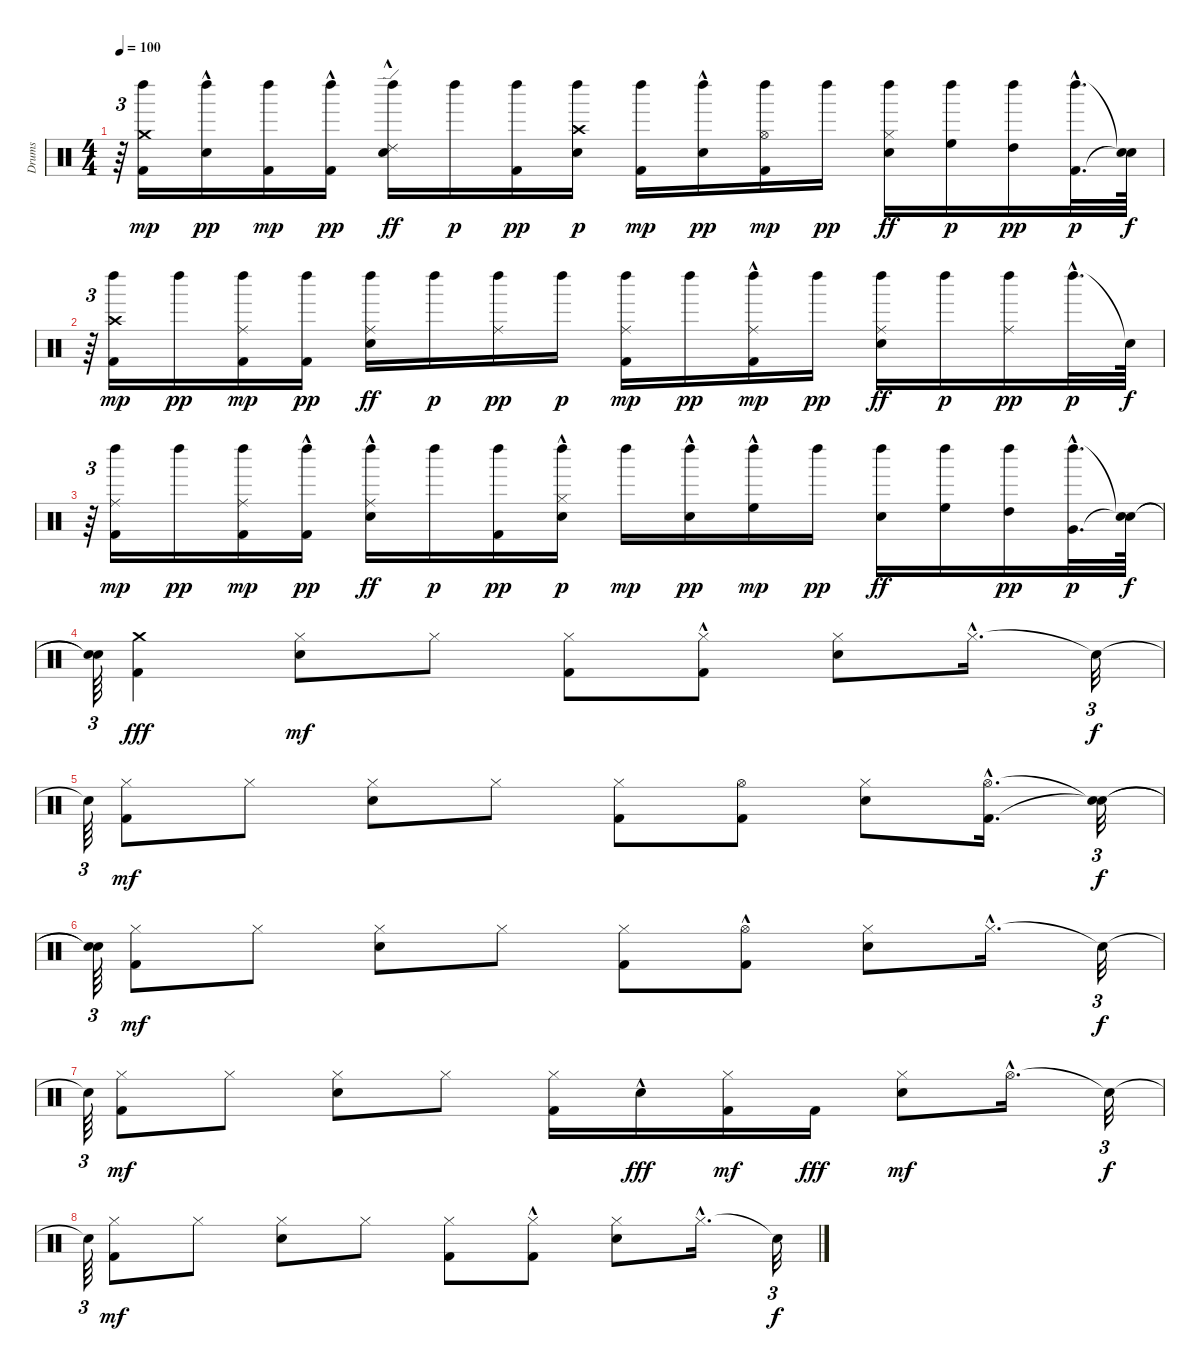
\track ("Drums" "Drums") {instrument percussion}
\staff {score}
\articulation defaults
\ts (4 4)
\tempo 100
\clef neutral
\ks c
r.64{tu (3 2) dy f} ("Crash medium (hit)" "Kick (hit) 2" "Left Maraca (hit)").16{dy mp} ("Snare (hit) 2"{hac} "Left Maraca (hit)").16{dy pp} ("Kick (hit) 2" "Left Maraca (hit)").16{dy mp} ("Kick (hit) 2"{hac} "Left Maraca (hit)").16{dy pp} ("Ride (edge) 2" "Snare (hit) 2"{hac} "Left Maraca (hit)").16{dy ff} "Left Maraca (hit)".16{dy p} ("Kick (hit) 2" "Left Maraca (hit)").16{dy pp} ("Crash high (hit)" "Snare (hit) 2" "Left Maraca (hit)").16{dy p} ("Kick (hit) 2" "Left Maraca (hit)").16{dy mp} ("Snare (hit) 2"{hac} "Left Maraca (hit)").16{dy pp} ("Kick (hit) 2" "Hi-Hat (open)" "Left Maraca (hit)").16{dy mp} "Left Maraca (hit)".16{dy pp} ("Snare (hit) 2" "Hi-Hat (closed)" "Left Maraca (hit)").16{dy ff} ("High Floor Tom (hit)" "Left Maraca (hit)").16{dy p} ("High Tom (hit)" "Left Maraca (hit)").16{dy pp} ("Kick (hit) 2"{hac} "Left Maraca (hit)"{hac}).32{d dy p} ("Snare (hit)"{t} "Snare (hit)"{t}).64{dy f} |
r.64{tu (3 2)} ("Crash high (hit)" "Kick (hit) 2" "Left Maraca (hit)").16{dy mp} "Left Maraca (hit)".16{dy pp} ("Ride (middle)" "Kick (hit) 2" "Left Maraca (hit)").16{dy mp} ("Kick (hit) 2" "Left Maraca (hit)").16{dy pp} ("Ride (middle)" "Snare (hit) 2" "Left Maraca (hit)").16{dy ff} "Left Maraca (hit)".16{dy p} ("Ride (middle)" "Left Maraca (hit)").16{dy pp} "Left Maraca (hit)".16{dy p} ("Ride (middle)" "Kick (hit) 2" "Left Maraca (hit)").16{dy mp} "Left Maraca (hit)".16{dy pp} ("Ride (middle)" "Kick (hit) 2"{hac} "Left Maraca (hit)").16{dy mp} "Left Maraca (hit)".16{dy pp} ("Ride (middle)" "Snare (hit) 2" "Left Maraca (hit)").16{dy ff} "Left Maraca (hit)".16{dy p} ("Ride (middle)" "Left Maraca (hit)").16{dy pp} "Left Maraca (hit)"{hac}.32{d dy p} "Snare (hit)"{t}.64{dy f} |
r.64{tu (3 2)} ("Ride (middle)" "Kick (hit) 2" "Left Maraca (hit)").16{dy mp} "Left Maraca (hit)".16{dy pp} ("Ride (middle)" "Kick (hit) 2" "Left Maraca (hit)").16{dy mp} ("Kick (hit) 2"{hac} "Left Maraca (hit)").16{dy pp} ("Ride (middle)" "Snare (hit) 2"{hac} "Left Maraca (hit)").16{dy ff} "Left Maraca (hit)".16{dy p} ("Kick (hit) 2" "Left Maraca (hit)").16{dy pp} ("Snare (hit) 2" "Hi-Hat (closed)"{hac} "Left Maraca (hit)").16{dy p} "Left Maraca (hit)".16{dy mp} ("Snare (hit) 2"{hac} "Left Maraca (hit)").16{dy pp} ("High Floor Tom (hit)"{hac} "Left Maraca (hit)").16{dy mp} "Left Maraca (hit)".16{dy pp} ("Snare (hit) 2" "Left Maraca (hit)").16{dy ff} ("Left Maraca (hit)" "High Floor Tom (hit)").16 ("High Tom (hit)" "Left Maraca (hit)").16{dy pp} ("Very Low Tom (hit)"{hac} "Left Maraca (hit)"{hac}).32{d dy p} ("Snare (hit)"{t} "Snare (hit)"{t}).64{dy f} |
("Snare (hit)"{t} "Snare (hit)"{t}).64{tu (3 2)} ("Crash medium (hit)" "Kick (hit) 2").4{dy fff} ("Snare (hit) 2" "Hi-Hat (closed)").8{dy mf} "Hi-Hat (closed)".8 ("Kick (hit) 2" "Hi-Hat (closed)").8 ("Kick (hit) 2"{hac} "Hi-Hat (closed)").8 ("Snare (hit) 2" "Hi-Hat (closed)").8 "Hi-Hat (closed)"{hac}.16{d} "Snare (hit)"{t}.32{tu (3 2) dy f} |
"Snare (hit)"{t}.64{tu (3 2)} ("Kick (hit) 2" "Hi-Hat (closed)").8{dy mf} "Hi-Hat (closed)".8 ("Snare (hit) 2" "Hi-Hat (closed)").8 "Hi-Hat (closed)".8 ("Kick (hit) 2" "Hi-Hat (closed)").8 ("Kick (hit) 2" "Hi-Hat (open)").8 ("Snare (hit) 2" "Hi-Hat (closed)").8 ("Kick (hit) 2"{hac} "Hi-Hat (open)"{hac}).16{d} ("Snare (hit)"{t} "Snare (hit)"{t}).32{tu (3 2) dy f} |
("Snare (hit)"{t} "Snare (hit)"{t}).64{tu (3 2)} ("Kick (hit) 2" "Hi-Hat (closed)").8{dy mf} "Hi-Hat (closed)".8 ("Snare (hit) 2" "Hi-Hat (closed)").8 "Hi-Hat (closed)".8 ("Kick (hit) 2" "Hi-Hat (closed)").8 ("Kick (hit) 2"{hac} "Hi-Hat (open)").8 ("Snare (hit) 2" "Hi-Hat (closed)").8 "Hi-Hat (closed)"{hac}.16{d} "Snare (hit)"{t}.32{tu (3 2) dy f} |
"Snare (hit)"{t}.64{tu (3 2)} ("Kick (hit) 2" "Hi-Hat (closed)").8{dy mf} "Hi-Hat (closed)".8 ("Snare (hit) 2" "Hi-Hat (closed)").8 "Hi-Hat (closed)".8 ("Kick (hit) 2" "Hi-Hat (closed)").16 "Snare (hit) 2"{hac}.16{dy fff} ("Kick (hit) 2" "Hi-Hat (closed)").16{dy mf} "Kick (hit) 2".16{dy fff} ("Snare (hit) 2" "Hi-Hat (closed)").8{dy mf} "Hi-Hat (open)"{hac}.16{d} "Snare (hit)"{t}.32{tu (3 2) dy f} |
"Snare (hit)"{t}.64{tu (3 2)} ("Kick (hit) 2" "Hi-Hat (closed)").8{dy mf} "Hi-Hat (closed)".8 ("Snare (hit) 2" "Hi-Hat (closed)").8 "Hi-Hat (closed)".8 ("Kick (hit) 2" "Hi-Hat (closed)").8 ("Kick (hit) 2"{hac} "Hi-Hat (closed)").8 ("Snare (hit) 2" "Hi-Hat (closed)").8 "Hi-Hat (closed)"{hac}.16{d} "Snare (hit)"{t}.32{tu (3 2) dy f}
